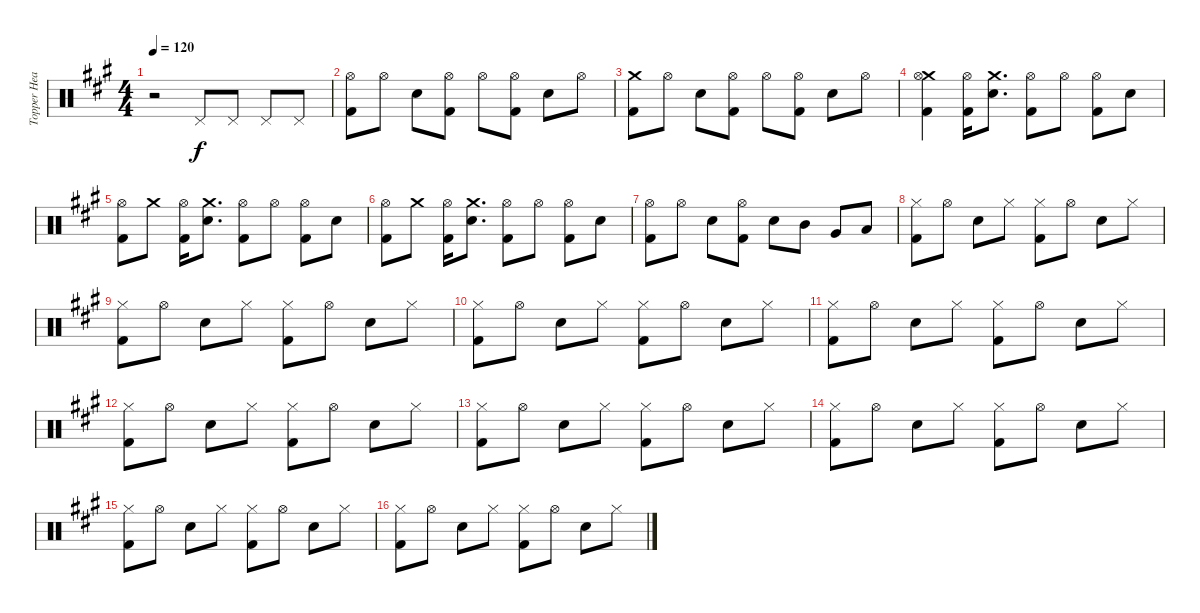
\track ("Topper Headon - Drums" "Topper Hea") {instrument percussion}
\staff {score}
\articulation defaults
\ts (4 4)
\tempo 120
\clef neutral
\ks a
r.2{dy f} "Pedal Hi-Hat (hit)".8{volume 6} "Pedal Hi-Hat (hit)".8 "Pedal Hi-Hat (hit)".8 "Pedal Hi-Hat (hit)".8 |
("Hi-Hat (open)" "Kick (hit) 2").8{volume 13} "Hi-Hat (open)".8 "Electric Snare (hit)".8 ("Hi-Hat (open)" "Kick (hit) 2").8 "Hi-Hat (open)".8 ("Hi-Hat (open)" "Kick (hit) 2").8 "Electric Snare (hit)".8 "Hi-Hat (open)".8 |
("Crash medium (hit)" "Kick (hit) 2").8 "Hi-Hat (open)".8 "Electric Snare (hit)".8 ("Hi-Hat (open)" "Kick (hit) 2").8 "Hi-Hat (open)".8 ("Hi-Hat (open)" "Kick (hit) 2").8 "Electric Snare (hit)".8 "Hi-Hat (open)".8 |
("Crash medium (hit)" "Hi-Hat (open)" "Kick (hit) 2").4 ("Hi-Hat (open)" "Kick (hit) 2").16 ("Crash medium (hit)" "Electric Snare (hit)").8{d} ("Hi-Hat (open)" "Kick (hit) 2").8 "Hi-Hat (open)".8 ("Hi-Hat (open)" "Kick (hit) 2").8 "Electric Snare (hit)".8 |
("Hi-Hat (open)" "Kick (hit) 2").8 "Crash medium (hit)".8 ("Hi-Hat (open)" "Kick (hit) 2").16 ("Crash medium (hit)" "Electric Snare (hit)").8{d} ("Hi-Hat (open)" "Kick (hit) 2").8 "Hi-Hat (open)".8 ("Hi-Hat (open)" "Kick (hit) 2").8 "Electric Snare (hit)".8 |
("Hi-Hat (open)" "Kick (hit) 2").8 "Crash medium (hit)".8 ("Hi-Hat (open)" "Kick (hit) 2").16 ("Crash medium (hit)" "Electric Snare (hit)").8{d} ("Hi-Hat (open)" "Kick (hit) 2").8 "Hi-Hat (open)".8 ("Hi-Hat (open)" "Kick (hit) 2").8 "Electric Snare (hit)".8 |
("Hi-Hat (open)" "Kick (hit) 2").8 "Hi-Hat (open)".8 "Electric Snare (hit)".8 ("Hi-Hat (open)" "Kick (hit) 2").8 "Electric Snare (hit)".8 "Mid Tom (hit)".8 "Very Low Tom (hit)".8 "Low Floor Tom (hit)".8 |
("Hi-Hat (closed)" "Kick (hit) 2").8 "Hi-Hat (open)".8 "Electric Snare (hit)".8 "Hi-Hat (closed)".8 ("Hi-Hat (closed)" "Kick (hit) 2").8 "Hi-Hat (open)".8 "Electric Snare (hit)".8 "Hi-Hat (closed)".8 |
("Hi-Hat (closed)" "Kick (hit) 2").8 "Hi-Hat (open)".8 "Electric Snare (hit)".8 "Hi-Hat (closed)".8 ("Hi-Hat (closed)" "Kick (hit) 2").8 "Hi-Hat (open)".8 "Electric Snare (hit)".8 "Hi-Hat (closed)".8 |
("Hi-Hat (closed)" "Kick (hit) 2").8 "Hi-Hat (open)".8 "Electric Snare (hit)".8 "Hi-Hat (closed)".8 ("Hi-Hat (closed)" "Kick (hit) 2").8 "Hi-Hat (open)".8 "Electric Snare (hit)".8 "Hi-Hat (closed)".8 |
("Hi-Hat (closed)" "Kick (hit) 2").8 "Hi-Hat (open)".8 "Electric Snare (hit)".8 "Hi-Hat (closed)".8 ("Hi-Hat (closed)" "Kick (hit) 2").8 "Hi-Hat (open)".8 "Electric Snare (hit)".8 "Hi-Hat (closed)".8 |
("Hi-Hat (closed)" "Kick (hit) 2").8 "Hi-Hat (open)".8 "Electric Snare (hit)".8 "Hi-Hat (closed)".8 ("Hi-Hat (closed)" "Kick (hit) 2").8 "Hi-Hat (open)".8 "Electric Snare (hit)".8 "Hi-Hat (closed)".8 |
("Hi-Hat (closed)" "Kick (hit) 2").8 "Hi-Hat (open)".8 "Electric Snare (hit)".8 "Hi-Hat (closed)".8 ("Hi-Hat (closed)" "Kick (hit) 2").8 "Hi-Hat (open)".8 "Electric Snare (hit)".8 "Hi-Hat (closed)".8 |
("Hi-Hat (closed)" "Kick (hit) 2").8 "Hi-Hat (open)".8 "Electric Snare (hit)".8 "Hi-Hat (closed)".8 ("Hi-Hat (closed)" "Kick (hit) 2").8 "Hi-Hat (open)".8 "Electric Snare (hit)".8 "Hi-Hat (closed)".8 |
("Hi-Hat (closed)" "Kick (hit) 2").8 "Hi-Hat (open)".8 "Electric Snare (hit)".8 "Hi-Hat (closed)".8 ("Hi-Hat (closed)" "Kick (hit) 2").8 "Hi-Hat (open)".8 "Electric Snare (hit)".8 "Hi-Hat (closed)".8 |
("Hi-Hat (closed)" "Kick (hit) 2").8 "Hi-Hat (open)".8 "Electric Snare (hit)".8 "Hi-Hat (closed)".8 ("Hi-Hat (closed)" "Kick (hit) 2").8 "Hi-Hat (open)".8 "Electric Snare (hit)".8 "Hi-Hat (closed)".8
